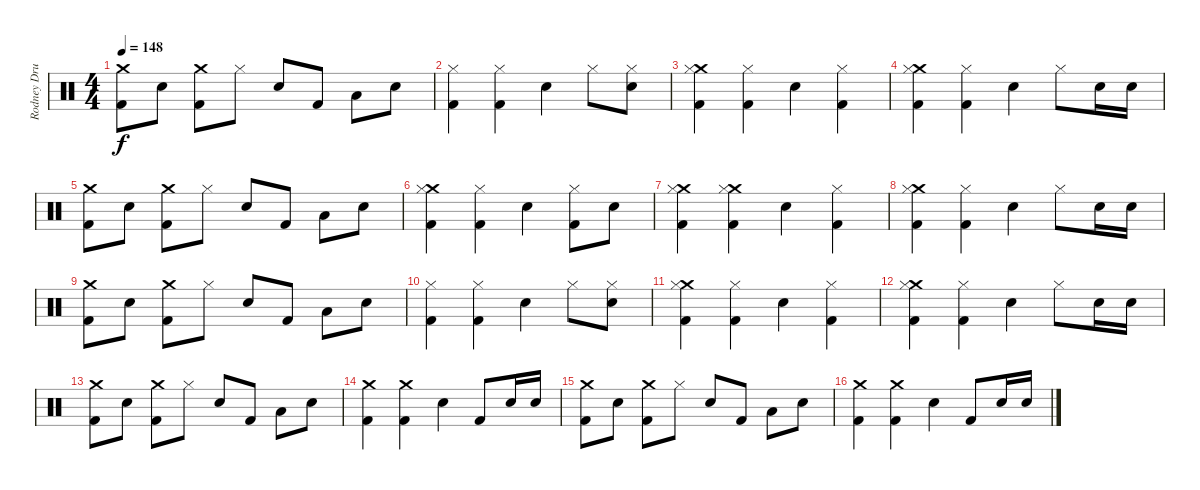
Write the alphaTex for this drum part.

\track ("Rodney Drums" "Rodney Dru") {instrument percussion}
\staff {score}
\articulation defaults
\ts (4 4)
\tempo 148
\clef neutral
\ks c
("Crash medium (hit)" "Kick (hit) 2").8{dy f} "Electric Snare (hit)".8 ("Crash medium (hit)" "Kick (hit) 2").8 "Hi-Hat (closed)".8 "Electric Snare (hit)".8 "Kick (hit) 2".8 "Low Tom (hit)".8 "Electric Snare (hit)".8 |
("Hi-Hat (closed)" "Kick (hit) 2").4 ("Hi-Hat (closed)" "Kick (hit) 2").4 "Electric Snare (hit)".4 "Hi-Hat (closed)".8 ("Hi-Hat (closed)" "Electric Snare (hit)").8 |
("Crash medium (hit)" "Hi-Hat (closed)" "Kick (hit) 2").4 ("Hi-Hat (closed)" "Kick (hit) 2").4 "Electric Snare (hit)".4 ("Hi-Hat (closed)" "Kick (hit) 2").4 |
("Crash medium (hit)" "Hi-Hat (closed)" "Kick (hit) 2").4 ("Hi-Hat (closed)" "Kick (hit) 2").4 "Electric Snare (hit)".4 "Hi-Hat (closed)".8 "Electric Snare (hit)".16 "Electric Snare (hit)".16 |
("Crash medium (hit)" "Kick (hit) 2").8 "Electric Snare (hit)".8 ("Crash medium (hit)" "Kick (hit) 2").8 "Hi-Hat (closed)".8 "Electric Snare (hit)".8 "Kick (hit) 2".8 "Low Tom (hit)".8 "Electric Snare (hit)".8 |
("Crash medium (hit)" "Hi-Hat (closed)" "Kick (hit) 2").4 ("Hi-Hat (closed)" "Kick (hit) 2").4 "Electric Snare (hit)".4 ("Hi-Hat (closed)" "Kick (hit) 2").8 "Electric Snare (hit)".8 |
("Crash medium (hit)" "Hi-Hat (closed)" "Kick (hit) 2").4 ("Crash medium (hit)" "Hi-Hat (closed)" "Kick (hit) 2").4 "Electric Snare (hit)".4 ("Hi-Hat (closed)" "Kick (hit) 2").4 |
("Crash medium (hit)" "Hi-Hat (closed)" "Kick (hit) 2").4 ("Hi-Hat (closed)" "Kick (hit) 2").4 "Electric Snare (hit)".4 "Hi-Hat (closed)".8 "Electric Snare (hit)".16 "Electric Snare (hit)".16 |
("Crash medium (hit)" "Kick (hit) 2").8 "Electric Snare (hit)".8 ("Crash medium (hit)" "Kick (hit) 2").8 "Hi-Hat (closed)".8 "Electric Snare (hit)".8 "Kick (hit) 2".8 "Low Tom (hit)".8 "Electric Snare (hit)".8 |
("Hi-Hat (closed)" "Kick (hit) 2").4 ("Hi-Hat (closed)" "Kick (hit) 2").4 "Electric Snare (hit)".4 "Hi-Hat (closed)".8 ("Hi-Hat (closed)" "Electric Snare (hit)").8 |
("Crash medium (hit)" "Hi-Hat (closed)" "Kick (hit) 2").4 ("Hi-Hat (closed)" "Kick (hit) 2").4 "Electric Snare (hit)".4 ("Hi-Hat (closed)" "Kick (hit) 2").4 |
("Crash medium (hit)" "Hi-Hat (closed)" "Kick (hit) 2").4 ("Hi-Hat (closed)" "Kick (hit) 2").4 "Electric Snare (hit)".4 "Hi-Hat (closed)".8 "Electric Snare (hit)".16 "Electric Snare (hit)".16 |
("Crash medium (hit)" "Kick (hit) 2").8 "Electric Snare (hit)".8 ("Crash medium (hit)" "Kick (hit) 2").8 "Hi-Hat (closed)".8 "Electric Snare (hit)".8 "Kick (hit) 2".8 "Low Tom (hit)".8 "Electric Snare (hit)".8 |
("Crash medium (hit)" "Kick (hit) 2").4 ("Crash medium (hit)" "Kick (hit) 2").4 "Electric Snare (hit)".4 "Kick (hit) 2".8 "Electric Snare (hit)".16 "Electric Snare (hit)".16 |
("Crash medium (hit)" "Kick (hit) 2").8 "Electric Snare (hit)".8 ("Crash medium (hit)" "Kick (hit) 2").8 "Hi-Hat (closed)".8 "Electric Snare (hit)".8 "Kick (hit) 2".8 "Low Tom (hit)".8 "Electric Snare (hit)".8 |
("Crash medium (hit)" "Kick (hit) 2").4 ("Crash medium (hit)" "Kick (hit) 2").4 "Electric Snare (hit)".4 "Kick (hit) 2".8 "Electric Snare (hit)".16 "Electric Snare (hit)".16
